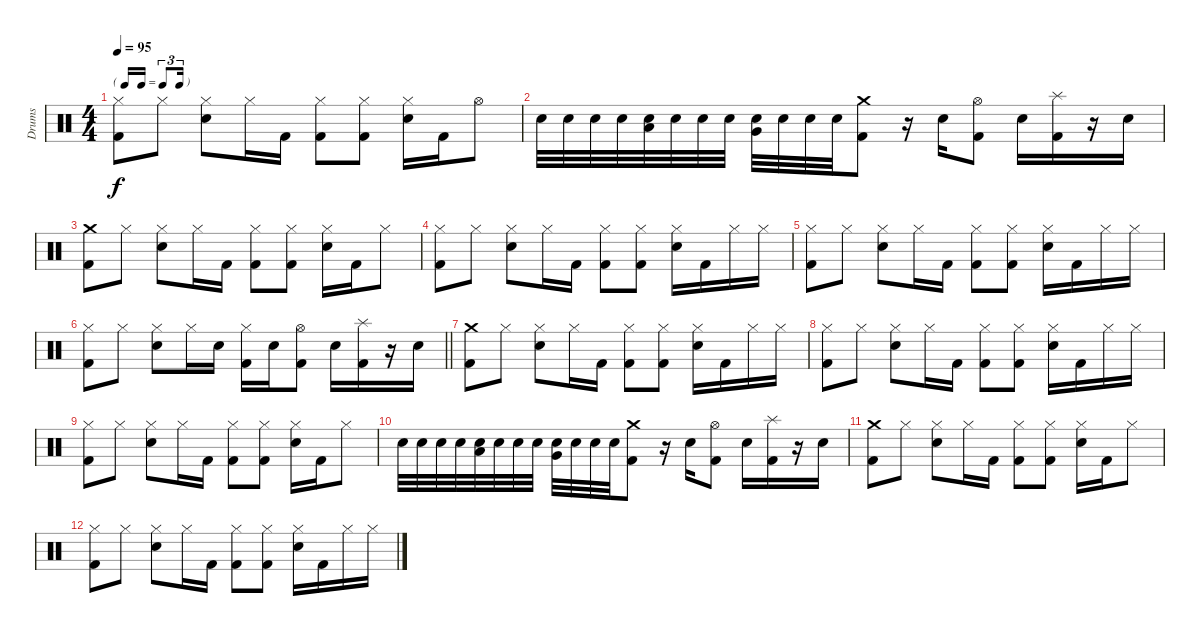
\track ("Drums" "Drums") {instrument percussion}
\staff {score}
\articulation defaults
\ts (4 4)
\tf triplet16th
\tempo 95
\clef neutral
\ks c
("Hi-Hat (closed)" "Kick (hit) 2").8{dy f} "Hi-Hat (closed)".8 ("Hi-Hat (closed)" "Snare (hit) 2").8 "Hi-Hat (closed)".16 "Kick (hit) 2".16 ("Hi-Hat (closed)" "Kick (hit) 2").8 ("Hi-Hat (closed)" "Kick (hit) 2").8 ("Hi-Hat (closed)" "Snare (hit) 2").16 "Kick (hit) 2".16 "Hi-Hat (open)".8 |
"Snare (hit) 2".32 "Snare (hit) 2".32 "Snare (hit) 2".32 "Snare (hit) 2".32 ("Snare (hit) 2" "Low Tom (hit)").32 "Snare (hit) 2".32 "Snare (hit) 2".32 "Snare (hit) 2".32 ("Snare (hit) 2" "Very Low Tom (hit)").32 "Snare (hit) 2".32 "Snare (hit) 2".32 "Snare (hit) 2".32 ("Crash medium (hit)" "Kick (hit) 2").8 r.16 "Snare (hit) 2".16 ("Hi-Hat (open)" "Kick (hit) 2").8 "Snare (hit) 2".16 ("Splash (hit)" "Kick (hit) 2").16 r.16 "Snare (hit) 2".16 |
("Crash medium (hit)" "Kick (hit) 2").8 "Hi-Hat (closed)".8 ("Hi-Hat (closed)" "Snare (hit) 2").8 "Hi-Hat (closed)".16 "Kick (hit) 2".16 ("Hi-Hat (closed)" "Kick (hit) 2").8 ("Hi-Hat (closed)" "Kick (hit) 2").8 ("Hi-Hat (closed)" "Snare (hit) 2").16 "Kick (hit) 2".16 "Hi-Hat (closed)".8 |
("Hi-Hat (closed)" "Kick (hit) 2").8 "Hi-Hat (closed)".8 ("Hi-Hat (closed)" "Snare (hit) 2").8 "Hi-Hat (closed)".16 "Kick (hit) 2".16 ("Hi-Hat (closed)" "Kick (hit) 2").8 ("Hi-Hat (closed)" "Kick (hit) 2").8 ("Hi-Hat (closed)" "Snare (hit) 2").16 "Kick (hit) 2".16 "Hi-Hat (closed)".16 "Hi-Hat (closed)".16 |
("Hi-Hat (closed)" "Kick (hit) 2").8 "Hi-Hat (closed)".8 ("Hi-Hat (closed)" "Snare (hit) 2").8 "Hi-Hat (closed)".16 "Kick (hit) 2".16 ("Hi-Hat (closed)" "Kick (hit) 2").8 ("Hi-Hat (closed)" "Kick (hit) 2").8 ("Hi-Hat (closed)" "Snare (hit) 2").16 "Kick (hit) 2".16 "Hi-Hat (closed)".16 "Hi-Hat (closed)".16 |
\barLineRight lightlight
("Hi-Hat (closed)" "Kick (hit) 2").8 "Hi-Hat (closed)".8 ("Hi-Hat (closed)" "Snare (hit) 2").8 "Hi-Hat (closed)".16 "Snare (hit) 2".16 ("Hi-Hat (closed)" "Kick (hit) 2").16 "Snare (hit) 2".16 ("Hi-Hat (open)" "Kick (hit) 2").8 "Snare (hit) 2".16 ("Splash (hit)" "Kick (hit) 2").16 r.16 "Snare (hit) 2".16 |
("Crash medium (hit)" "Kick (hit) 2").8 "Hi-Hat (closed)".8 ("Hi-Hat (closed)" "Snare (hit) 2").8 "Hi-Hat (closed)".16 "Kick (hit) 2".16 ("Hi-Hat (closed)" "Kick (hit) 2").8 ("Hi-Hat (closed)" "Kick (hit) 2").8 ("Hi-Hat (closed)" "Snare (hit) 2").16 "Kick (hit) 2".16 "Hi-Hat (closed)".16 "Hi-Hat (closed)".16 |
("Hi-Hat (closed)" "Kick (hit) 2").8 "Hi-Hat (closed)".8 ("Hi-Hat (closed)" "Snare (hit) 2").8 "Hi-Hat (closed)".16 "Kick (hit) 2".16 ("Hi-Hat (closed)" "Kick (hit) 2").8 ("Hi-Hat (closed)" "Kick (hit) 2").8 ("Hi-Hat (closed)" "Snare (hit) 2").16 "Kick (hit) 2".16 "Hi-Hat (closed)".16 "Hi-Hat (closed)".16 |
("Hi-Hat (closed)" "Kick (hit) 2").8 "Hi-Hat (closed)".8 ("Hi-Hat (closed)" "Snare (hit) 2").8 "Hi-Hat (closed)".16 "Kick (hit) 2".16 ("Hi-Hat (closed)" "Kick (hit) 2").8 ("Hi-Hat (closed)" "Kick (hit) 2").8 ("Hi-Hat (closed)" "Snare (hit) 2").16 "Kick (hit) 2".16 "Hi-Hat (closed)".8 |
"Snare (hit) 2".32 "Snare (hit) 2".32 "Snare (hit) 2".32 "Snare (hit) 2".32 ("Snare (hit) 2" "Low Tom (hit)").32 "Snare (hit) 2".32 "Snare (hit) 2".32 "Snare (hit) 2".32 ("Snare (hit) 2" "Very Low Tom (hit)").32 "Snare (hit) 2".32 "Snare (hit) 2".32 "Snare (hit) 2".32 ("Crash medium (hit)" "Kick (hit) 2").8 r.16 "Snare (hit) 2".16 ("Hi-Hat (open)" "Kick (hit) 2").8 "Snare (hit) 2".16 ("Splash (hit)" "Kick (hit) 2").16 r.16 "Snare (hit) 2".16 |
("Crash medium (hit)" "Kick (hit) 2").8 "Hi-Hat (closed)".8 ("Hi-Hat (closed)" "Snare (hit) 2").8 "Hi-Hat (closed)".16 "Kick (hit) 2".16 ("Hi-Hat (closed)" "Kick (hit) 2").8 ("Hi-Hat (closed)" "Kick (hit) 2").8 ("Hi-Hat (closed)" "Snare (hit) 2").16 "Kick (hit) 2".16 "Hi-Hat (closed)".8 |
("Hi-Hat (closed)" "Kick (hit) 2").8 "Hi-Hat (closed)".8 ("Hi-Hat (closed)" "Snare (hit) 2").8 "Hi-Hat (closed)".16 "Kick (hit) 2".16 ("Hi-Hat (closed)" "Kick (hit) 2").8 ("Hi-Hat (closed)" "Kick (hit) 2").8 ("Hi-Hat (closed)" "Snare (hit) 2").16 "Kick (hit) 2".16 "Hi-Hat (closed)".16 "Hi-Hat (closed)".16
